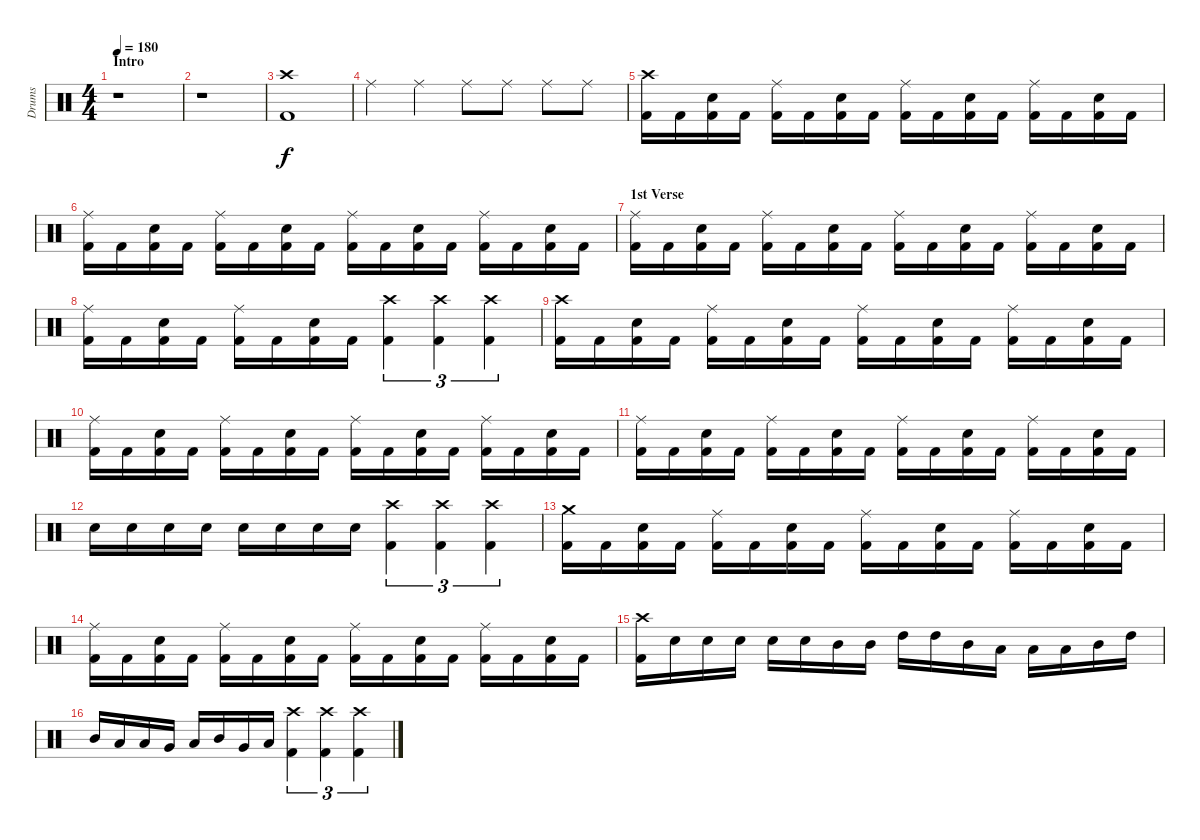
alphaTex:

\track ("Drums" "Drums") {instrument percussion}
\staff {score}
\articulation defaults
\ts (4 4)
\section ("" "Intro")
\tempo 180
\clef neutral
\ks c
r.1{dy f} |
r.1 |
("Crash high (hit)" "Kick (hit) 2").1 |
"Ride (middle)".4 "Ride (middle)".4 "Ride (middle)".8 "Ride (middle)".8 "Ride (middle)".8 "Ride (middle)".8 |
("Crash high (hit)" "Kick (hit) 2").16 "Kick (hit) 2".16 ("Electric Snare (hit)" "Kick (hit) 2").16 "Kick (hit) 2".16 ("Ride (middle)" "Kick (hit) 2").16 "Kick (hit) 2".16 ("Electric Snare (hit)" "Kick (hit) 2").16 "Kick (hit) 2".16 ("Ride (middle)" "Kick (hit) 2").16 "Kick (hit) 2".16 ("Electric Snare (hit)" "Kick (hit) 2").16 "Kick (hit) 2".16 ("Ride (middle)" "Kick (hit) 2").16 "Kick (hit) 2".16 ("Electric Snare (hit)" "Kick (hit) 2").16 "Kick (hit) 2".16 |
("Ride (middle)" "Kick (hit) 2").16 "Kick (hit) 2".16 ("Electric Snare (hit)" "Kick (hit) 2").16 "Kick (hit) 2".16 ("Ride (middle)" "Kick (hit) 2").16 "Kick (hit) 2".16 ("Electric Snare (hit)" "Kick (hit) 2").16 "Kick (hit) 2".16 ("Ride (middle)" "Kick (hit) 2").16 "Kick (hit) 2".16 ("Electric Snare (hit)" "Kick (hit) 2").16 "Kick (hit) 2".16 ("Ride (middle)" "Kick (hit) 2").16 "Kick (hit) 2".16 ("Electric Snare (hit)" "Kick (hit) 2").16 "Kick (hit) 2".16 |
\section ("" "1st Verse")
("Ride (middle)" "Kick (hit) 2").16 "Kick (hit) 2".16 ("Electric Snare (hit)" "Kick (hit) 2").16 "Kick (hit) 2".16 ("Ride (middle)" "Kick (hit) 2").16 "Kick (hit) 2".16 ("Electric Snare (hit)" "Kick (hit) 2").16 "Kick (hit) 2".16 ("Ride (middle)" "Kick (hit) 2").16 "Kick (hit) 2".16 ("Electric Snare (hit)" "Kick (hit) 2").16 "Kick (hit) 2".16 ("Ride (middle)" "Kick (hit) 2").16 "Kick (hit) 2".16 ("Electric Snare (hit)" "Kick (hit) 2").16 "Kick (hit) 2".16 |
("Ride (middle)" "Kick (hit) 2").16 "Kick (hit) 2".16 ("Electric Snare (hit)" "Kick (hit) 2").16 "Kick (hit) 2".16 ("Ride (middle)" "Kick (hit) 2").16 "Kick (hit) 2".16 ("Electric Snare (hit)" "Kick (hit) 2").16 "Kick (hit) 2".16 ("Crash high (hit)" "Kick (hit) 2").4{tu (3 2)} ("Crash high (hit)" "Kick (hit) 2").4{tu (3 2)} ("Crash high (hit)" "Kick (hit) 2").4{tu (3 2)} |
("Crash high (hit)" "Kick (hit) 2").16 "Kick (hit) 2".16 ("Electric Snare (hit)" "Kick (hit) 2").16 "Kick (hit) 2".16 ("Ride (middle)" "Kick (hit) 2").16 "Kick (hit) 2".16 ("Electric Snare (hit)" "Kick (hit) 2").16 "Kick (hit) 2".16 ("Ride (middle)" "Kick (hit) 2").16 "Kick (hit) 2".16 ("Electric Snare (hit)" "Kick (hit) 2").16 "Kick (hit) 2".16 ("Ride (middle)" "Kick (hit) 2").16 "Kick (hit) 2".16 ("Electric Snare (hit)" "Kick (hit) 2").16 "Kick (hit) 2".16 |
("Ride (middle)" "Kick (hit) 2").16 "Kick (hit) 2".16 ("Electric Snare (hit)" "Kick (hit) 2").16 "Kick (hit) 2".16 ("Ride (middle)" "Kick (hit) 2").16 "Kick (hit) 2".16 ("Electric Snare (hit)" "Kick (hit) 2").16 "Kick (hit) 2".16 ("Ride (middle)" "Kick (hit) 2").16 "Kick (hit) 2".16 ("Electric Snare (hit)" "Kick (hit) 2").16 "Kick (hit) 2".16 ("Ride (middle)" "Kick (hit) 2").16 "Kick (hit) 2".16 ("Electric Snare (hit)" "Kick (hit) 2").16 "Kick (hit) 2".16 |
("Ride (middle)" "Kick (hit) 2").16 "Kick (hit) 2".16 ("Electric Snare (hit)" "Kick (hit) 2").16 "Kick (hit) 2".16 ("Ride (middle)" "Kick (hit) 2").16 "Kick (hit) 2".16 ("Electric Snare (hit)" "Kick (hit) 2").16 "Kick (hit) 2".16 ("Ride (middle)" "Kick (hit) 2").16 "Kick (hit) 2".16 ("Electric Snare (hit)" "Kick (hit) 2").16 "Kick (hit) 2".16 ("Ride (middle)" "Kick (hit) 2").16 "Kick (hit) 2".16 ("Electric Snare (hit)" "Kick (hit) 2").16 "Kick (hit) 2".16 |
"Electric Snare (hit)".16 "Electric Snare (hit)".16 "Electric Snare (hit)".16 "Electric Snare (hit)".16 "Electric Snare (hit)".16 "Electric Snare (hit)".16 "Electric Snare (hit)".16 "Electric Snare (hit)".16 ("Crash high (hit)" "Kick (hit) 2").4{tu (3 2)} ("Crash high (hit)" "Kick (hit) 2").4{tu (3 2)} ("Crash high (hit)" "Kick (hit) 2").4{tu (3 2)} |
("Crash medium (hit)" "Kick (hit) 2").16 "Kick (hit) 2".16 ("Electric Snare (hit)" "Kick (hit) 2").16 "Kick (hit) 2".16 ("Ride (middle)" "Kick (hit) 2").16 "Kick (hit) 2".16 ("Electric Snare (hit)" "Kick (hit) 2").16 "Kick (hit) 2".16 ("Ride (middle)" "Kick (hit) 2").16 "Kick (hit) 2".16 ("Electric Snare (hit)" "Kick (hit) 2").16 "Kick (hit) 2".16 ("Ride (middle)" "Kick (hit) 2").16 "Kick (hit) 2".16 ("Electric Snare (hit)" "Kick (hit) 2").16 "Kick (hit) 2".16 |
("Ride (middle)" "Kick (hit) 2").16 "Kick (hit) 2".16 ("Electric Snare (hit)" "Kick (hit) 2").16 "Kick (hit) 2".16 ("Ride (middle)" "Kick (hit) 2").16 "Kick (hit) 2".16 ("Electric Snare (hit)" "Kick (hit) 2").16 "Kick (hit) 2".16 ("Ride (middle)" "Kick (hit) 2").16 "Kick (hit) 2".16 ("Electric Snare (hit)" "Kick (hit) 2").16 "Kick (hit) 2".16 ("Ride (middle)" "Kick (hit) 2").16 "Kick (hit) 2".16 ("Electric Snare (hit)" "Kick (hit) 2").16 "Kick (hit) 2".16 |
("Crash high (hit)" "Kick (hit) 2").16 "Electric Snare (hit)".16 "Electric Snare (hit)".16 "Electric Snare (hit)".16 "Electric Snare (hit)".16 "Electric Snare (hit)".16 "Mid Tom (hit)".16 "Mid Tom (hit)".16 "High Tom (hit)".16 "High Tom (hit)".16 "Mid Tom (hit)".16 "Low Tom (hit)".16 "Low Tom (hit)".16 "Low Tom (hit)".16 "Mid Tom (hit)".16 "High Tom (hit)".16 |
"Mid Tom (hit)".16 "Low Tom (hit)".16 "Low Tom (hit)".16 "Very Low Tom (hit)".16 "Low Tom (hit)".16 "Mid Tom (hit)".16 "Very Low Tom (hit)".16 "Low Floor Tom (hit)".16 ("Crash high (hit)" "Kick (hit) 2").4{tu (3 2)} ("Crash high (hit)" "Kick (hit) 2").4{tu (3 2)} ("Crash high (hit)" "Kick (hit) 2").4{tu (3 2)}
